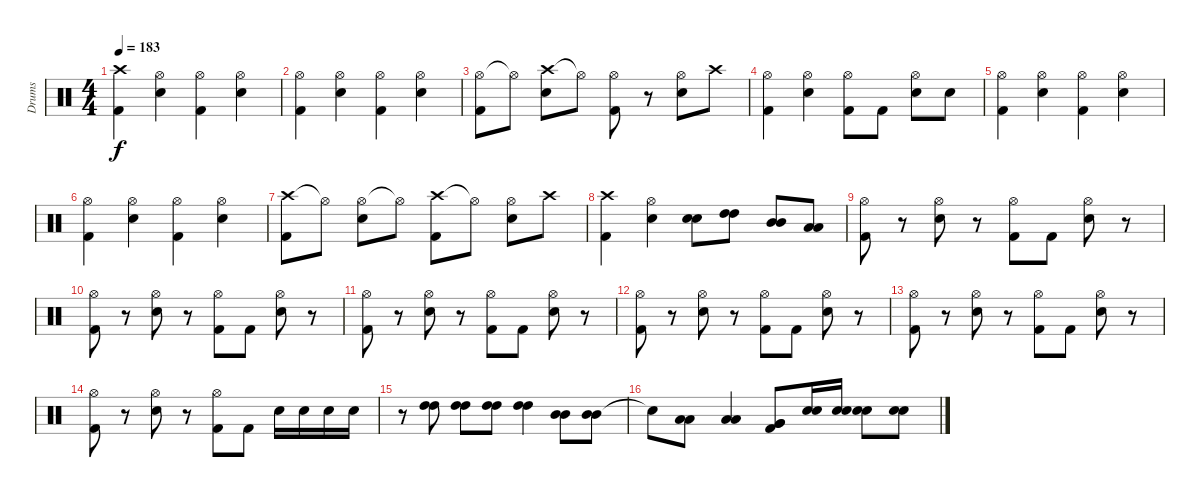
\track ("Drums" "Drums") {instrument percussion}
\staff {score}
\articulation defaults
\ts (4 4)
\tempo 183
\clef neutral
\ks c
("Crash high (hit)" "Kick (hit) 2").4{dy f} ("Hi-Hat (open)" "Electric Snare (hit)").4 ("Hi-Hat (open)" "Kick (hit) 2").4 ("Hi-Hat (open)" "Electric Snare (hit)").4 |
("Hi-Hat (open)" "Kick (hit) 2").4 ("Hi-Hat (open)" "Electric Snare (hit)").4 ("Hi-Hat (open)" "Kick (hit) 2").4 ("Hi-Hat (open)" "Electric Snare (hit)").4 |
("Hi-Hat (open)" "Kick (hit) 2").8 "Hi-Hat (open)"{t}.8 ("Crash high (hit)" "Electric Snare (hit)").8 "Hi-Hat (open)"{t}.8 ("Hi-Hat (open)" "Kick (hit) 2").8 r.8 ("Hi-Hat (open)" "Electric Snare (hit)").8 "Crash high (hit)".8 |
("Hi-Hat (open)" "Kick (hit) 2").4 ("Hi-Hat (open)" "Electric Snare (hit)").4 ("Hi-Hat (open)" "Kick (hit) 2").8 "Kick (hit) 2".8 ("Hi-Hat (open)" "Electric Snare (hit)").8 "Electric Snare (hit)".8 |
("Hi-Hat (open)" "Kick (hit) 2").4 ("Hi-Hat (open)" "Electric Snare (hit)").4 ("Hi-Hat (open)" "Kick (hit) 2").4 ("Hi-Hat (open)" "Electric Snare (hit)").4 |
("Hi-Hat (open)" "Kick (hit) 2").4 ("Hi-Hat (open)" "Electric Snare (hit)").4 ("Hi-Hat (open)" "Kick (hit) 2").4 ("Hi-Hat (open)" "Electric Snare (hit)").4 |
("Crash high (hit)" "Kick (hit) 2").8 "Hi-Hat (open)"{t}.8 ("Hi-Hat (open)" "Electric Snare (hit)").8 "Hi-Hat (open)"{t}.8 ("Crash high (hit)" "Kick (hit) 2").8 "Hi-Hat (open)"{t}.8 ("Hi-Hat (open)" "Electric Snare (hit)").8 "Crash high (hit)".8 |
("Crash high (hit)" "Kick (hit) 2").4 ("Hi-Hat (open)" "Electric Snare (hit)").4 ("Electric Snare (hit)" "Electric Snare (hit)").8 ("High Tom (hit)" "High Tom (hit)").8 ("Mid Tom (hit)" "Mid Tom (hit)").8 ("Low Tom (hit)" "Low Tom (hit)").8 |
("Hi-Hat (open)" "Kick (hit) 2").8 r.8 ("Hi-Hat (open)" "Electric Snare (hit)").8 r.8 ("Hi-Hat (open)" "Kick (hit) 2").8 "Kick (hit) 2".8 ("Hi-Hat (open)" "Electric Snare (hit)").8 r.8 |
("Hi-Hat (open)" "Kick (hit) 2").8 r.8 ("Hi-Hat (open)" "Electric Snare (hit)").8 r.8 ("Hi-Hat (open)" "Kick (hit) 2").8 "Kick (hit) 2".8 ("Hi-Hat (open)" "Electric Snare (hit)").8 r.8 |
("Hi-Hat (open)" "Kick (hit) 2").8 r.8 ("Hi-Hat (open)" "Electric Snare (hit)").8 r.8 ("Hi-Hat (open)" "Kick (hit) 2").8 "Kick (hit) 2".8 ("Hi-Hat (open)" "Electric Snare (hit)").8 r.8 |
("Hi-Hat (open)" "Kick (hit) 2").8 r.8 ("Hi-Hat (open)" "Electric Snare (hit)").8 r.8 ("Hi-Hat (open)" "Kick (hit) 2").8 "Kick (hit) 2".8 ("Hi-Hat (open)" "Electric Snare (hit)").8 r.8 |
("Hi-Hat (open)" "Kick (hit) 2").8 r.8 ("Hi-Hat (open)" "Electric Snare (hit)").8 r.8 ("Hi-Hat (open)" "Kick (hit) 2").8 "Kick (hit) 2".8 ("Hi-Hat (open)" "Electric Snare (hit)").8 r.8 |
("Hi-Hat (open)" "Kick (hit) 2").8 r.8 ("Hi-Hat (open)" "Electric Snare (hit)").8 r.8 ("Hi-Hat (open)" "Kick (hit) 2").8 "Kick (hit) 2".8 "Electric Snare (hit)".16 "Electric Snare (hit)".16 "Electric Snare (hit)".16 "Electric Snare (hit)".16 |
r.8 ("High Tom (hit)" "High Tom (hit)").8 ("High Tom (hit)" "High Tom (hit)").8 ("High Tom (hit)" "High Tom (hit)").8 ("High Tom (hit)" "High Tom (hit)").4 ("Mid Tom (hit)" "Mid Tom (hit)").8 ("Mid Tom (hit)" "Mid Tom (hit)").8 |
"Snare (hit)"{t}.8 ("Low Tom (hit)" "Low Tom (hit)").8 ("Low Tom (hit)" "Low Tom (hit)").4 ("Very Low Tom (hit)" "Very Low Tom (hit)" "Kick (hit) 2").8 ("Electric Snare (hit)" "Electric Snare (hit)").16 ("Electric Snare (hit)" "Electric Snare (hit)").16 ("Electric Snare (hit)" "Electric Snare (hit)").8 ("Electric Snare (hit)" "Electric Snare (hit)").8
